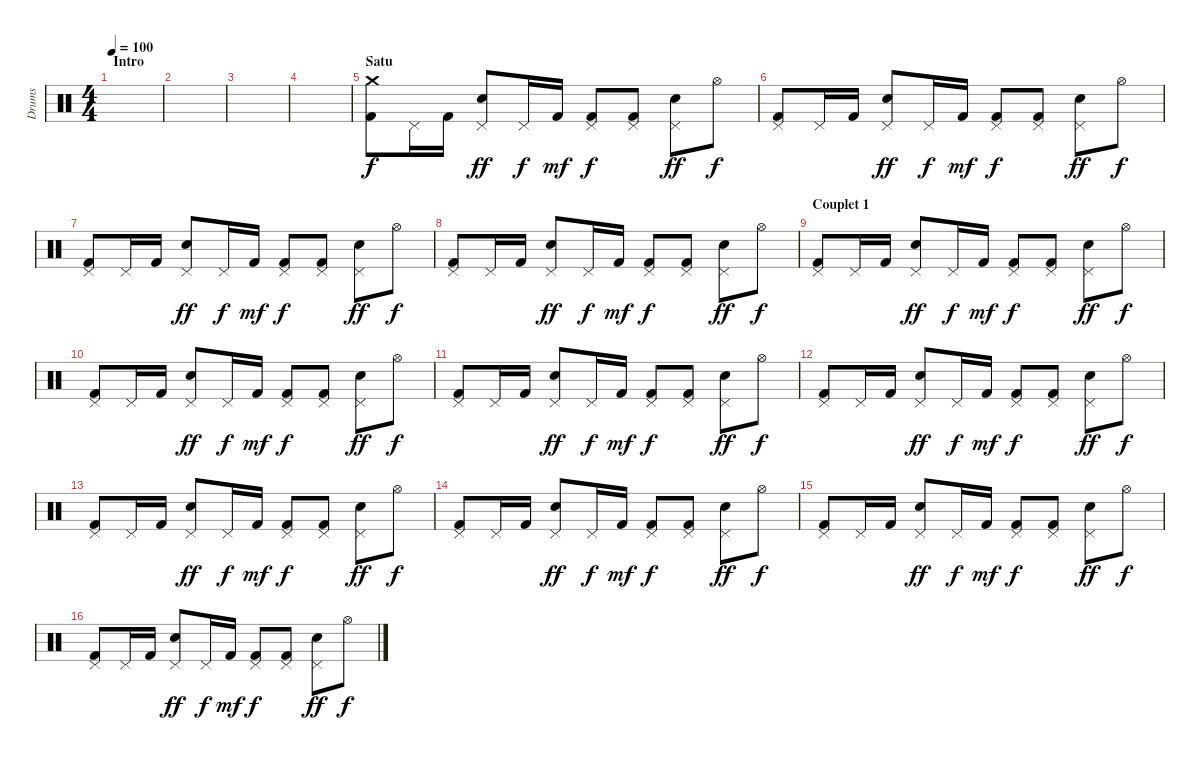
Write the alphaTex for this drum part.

\track ("Drums" "Drums") {instrument percussion}
\staff {score}
\articulation defaults
\ts (4 4)
\section ("" "Intro")
\tempo 100
\clef neutral
\ks c
|
|
|
|
\section ("" "Satu")
("Crash medium (hit)" "Kick (hit) 2").8 "Pedal Hi-Hat (hit)".16 "Kick (hit) 2".16 ("Pedal Hi-Hat (hit)" "Snare (hit) 2").8{dy ff} "Pedal Hi-Hat (hit)".16{dy f} "Kick (hit) 2".16{dy mf} ("Pedal Hi-Hat (hit)" "Kick (hit) 2").8{dy f} ("Pedal Hi-Hat (hit)" "Kick (hit) 2").8 ("Pedal Hi-Hat (hit)" "Snare (hit) 2").8{dy ff} "Hi-Hat (open)".8{dy f} |
("Pedal Hi-Hat (hit)" "Kick (hit) 2").8 "Pedal Hi-Hat (hit)".16 "Kick (hit) 2".16 ("Pedal Hi-Hat (hit)" "Snare (hit) 2").8{dy ff} "Pedal Hi-Hat (hit)".16{dy f} "Kick (hit) 2".16{dy mf} ("Pedal Hi-Hat (hit)" "Kick (hit) 2").8{dy f} ("Pedal Hi-Hat (hit)" "Kick (hit) 2").8 ("Pedal Hi-Hat (hit)" "Snare (hit) 2").8{dy ff} "Hi-Hat (open)".8{dy f} |
("Pedal Hi-Hat (hit)" "Kick (hit) 2").8 "Pedal Hi-Hat (hit)".16 "Kick (hit) 2".16 ("Pedal Hi-Hat (hit)" "Snare (hit) 2").8{dy ff} "Pedal Hi-Hat (hit)".16{dy f} "Kick (hit) 2".16{dy mf} ("Pedal Hi-Hat (hit)" "Kick (hit) 2").8{dy f} ("Pedal Hi-Hat (hit)" "Kick (hit) 2").8 ("Pedal Hi-Hat (hit)" "Snare (hit) 2").8{dy ff} "Hi-Hat (open)".8{dy f} |
("Pedal Hi-Hat (hit)" "Kick (hit) 2").8 "Pedal Hi-Hat (hit)".16 "Kick (hit) 2".16 ("Pedal Hi-Hat (hit)" "Snare (hit) 2").8{dy ff} "Pedal Hi-Hat (hit)".16{dy f} "Kick (hit) 2".16{dy mf} ("Pedal Hi-Hat (hit)" "Kick (hit) 2").8{dy f} ("Pedal Hi-Hat (hit)" "Kick (hit) 2").8 ("Pedal Hi-Hat (hit)" "Snare (hit) 2").8{dy ff} "Hi-Hat (open)".8{dy f} |
\section ("" "Couplet 1")
("Pedal Hi-Hat (hit)" "Kick (hit) 2").8 "Pedal Hi-Hat (hit)".16 "Kick (hit) 2".16 ("Pedal Hi-Hat (hit)" "Snare (hit) 2").8{dy ff} "Pedal Hi-Hat (hit)".16{dy f} "Kick (hit) 2".16{dy mf} ("Pedal Hi-Hat (hit)" "Kick (hit) 2").8{dy f} ("Pedal Hi-Hat (hit)" "Kick (hit) 2").8 ("Pedal Hi-Hat (hit)" "Snare (hit) 2").8{dy ff} "Hi-Hat (open)".8{dy f} |
("Pedal Hi-Hat (hit)" "Kick (hit) 2").8 "Pedal Hi-Hat (hit)".16 "Kick (hit) 2".16 ("Pedal Hi-Hat (hit)" "Snare (hit) 2").8{dy ff} "Pedal Hi-Hat (hit)".16{dy f} "Kick (hit) 2".16{dy mf} ("Pedal Hi-Hat (hit)" "Kick (hit) 2").8{dy f} ("Pedal Hi-Hat (hit)" "Kick (hit) 2").8 ("Pedal Hi-Hat (hit)" "Snare (hit) 2").8{dy ff} "Hi-Hat (open)".8{dy f} |
("Pedal Hi-Hat (hit)" "Kick (hit) 2").8 "Pedal Hi-Hat (hit)".16 "Kick (hit) 2".16 ("Pedal Hi-Hat (hit)" "Snare (hit) 2").8{dy ff} "Pedal Hi-Hat (hit)".16{dy f} "Kick (hit) 2".16{dy mf} ("Pedal Hi-Hat (hit)" "Kick (hit) 2").8{dy f} ("Pedal Hi-Hat (hit)" "Kick (hit) 2").8 ("Pedal Hi-Hat (hit)" "Snare (hit) 2").8{dy ff} "Hi-Hat (open)".8{dy f} |
("Pedal Hi-Hat (hit)" "Kick (hit) 2").8 "Pedal Hi-Hat (hit)".16 "Kick (hit) 2".16 ("Pedal Hi-Hat (hit)" "Snare (hit) 2").8{dy ff} "Pedal Hi-Hat (hit)".16{dy f} "Kick (hit) 2".16{dy mf} ("Pedal Hi-Hat (hit)" "Kick (hit) 2").8{dy f} ("Pedal Hi-Hat (hit)" "Kick (hit) 2").8 ("Pedal Hi-Hat (hit)" "Snare (hit) 2").8{dy ff} "Hi-Hat (open)".8{dy f} |
("Pedal Hi-Hat (hit)" "Kick (hit) 2").8 "Pedal Hi-Hat (hit)".16 "Kick (hit) 2".16 ("Pedal Hi-Hat (hit)" "Snare (hit) 2").8{dy ff} "Pedal Hi-Hat (hit)".16{dy f} "Kick (hit) 2".16{dy mf} ("Pedal Hi-Hat (hit)" "Kick (hit) 2").8{dy f} ("Pedal Hi-Hat (hit)" "Kick (hit) 2").8 ("Pedal Hi-Hat (hit)" "Snare (hit) 2").8{dy ff} "Hi-Hat (open)".8{dy f} |
("Pedal Hi-Hat (hit)" "Kick (hit) 2").8 "Pedal Hi-Hat (hit)".16 "Kick (hit) 2".16 ("Pedal Hi-Hat (hit)" "Snare (hit) 2").8{dy ff} "Pedal Hi-Hat (hit)".16{dy f} "Kick (hit) 2".16{dy mf} ("Pedal Hi-Hat (hit)" "Kick (hit) 2").8{dy f} ("Pedal Hi-Hat (hit)" "Kick (hit) 2").8 ("Pedal Hi-Hat (hit)" "Snare (hit) 2").8{dy ff} "Hi-Hat (open)".8{dy f} |
("Pedal Hi-Hat (hit)" "Kick (hit) 2").8 "Pedal Hi-Hat (hit)".16 "Kick (hit) 2".16 ("Pedal Hi-Hat (hit)" "Snare (hit) 2").8{dy ff} "Pedal Hi-Hat (hit)".16{dy f} "Kick (hit) 2".16{dy mf} ("Pedal Hi-Hat (hit)" "Kick (hit) 2").8{dy f} ("Pedal Hi-Hat (hit)" "Kick (hit) 2").8 ("Pedal Hi-Hat (hit)" "Snare (hit) 2").8{dy ff} "Hi-Hat (open)".8{dy f} |
("Pedal Hi-Hat (hit)" "Kick (hit) 2").8 "Pedal Hi-Hat (hit)".16 "Kick (hit) 2".16 ("Pedal Hi-Hat (hit)" "Snare (hit) 2").8{dy ff} "Pedal Hi-Hat (hit)".16{dy f} "Kick (hit) 2".16{dy mf} ("Pedal Hi-Hat (hit)" "Kick (hit) 2").8{dy f} ("Pedal Hi-Hat (hit)" "Kick (hit) 2").8 ("Pedal Hi-Hat (hit)" "Snare (hit) 2").8{dy ff} "Hi-Hat (open)".8{dy f}
